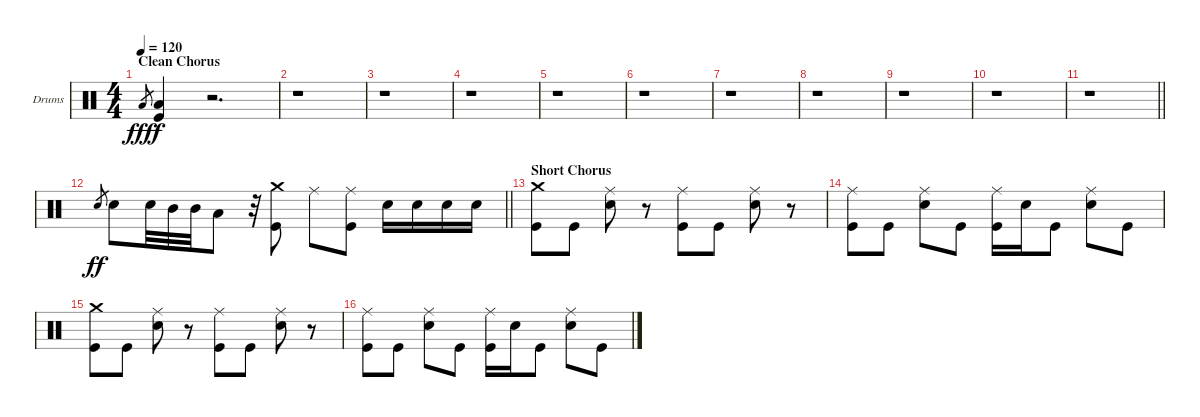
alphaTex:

\bracketExtendMode groupsimilarinstruments
\firstSystemTrackNameOrientation horizontal
\otherSystemsTrackNameOrientation horizontal
\track ("Drums" "Drums") {instrument percussion}
\staff {score}
\articulation defaults
\ts (4 4)
\section ("" "Clean Chorus")
\tempo 120
\clef neutral
\ks c "Low Tom (hit)".8{gr dy fff}
("Kick (hit)" "Low Tom (hit)").4{dy f} r.2{d} |
r.1 |
r.1 |
r.1 |
r.1 |
r.1 |
r.1 |
r.1 |
r.1 |
r.1 |
\barLineRight lightlight
r.1 |
\barLineRight lightlight "Snare (hit) 2".8{gr dy ff} "Snare (hit) 2".8 "Snare (hit) 2".32 "Mid Tom (hit)".32 "Mid Tom (hit)".32 "Low Tom (hit)".8
r.32 ("Kick (hit)" "Crash medium (hit)").8 "Ride (middle)".8 ("Ride (middle)" "Kick (hit)").8 "Snare (hit) 2".16 "Snare (hit) 2".16 "Snare (hit) 2".16 "Snare (hit) 2".16 |
\section ("" "Short Chorus")
("Kick (hit)" "Crash medium (hit)").8 "Kick (hit)".8 ("Snare (hit) 2" "Ride (middle)").8 r.8 ("Kick (hit)" "Ride (middle)").8 "Kick (hit)".8 ("Snare (hit) 2" "Ride (middle)").8 r.8 |
("Kick (hit)" "Ride (middle)").8 "Kick (hit)".8 ("Snare (hit) 2" "Ride (middle)").8 "Kick (hit)".8 ("Kick (hit)" "Ride (middle)").16 "Snare (hit) 2".16 "Kick (hit)".8 ("Snare (hit) 2" "Ride (middle)").8 "Kick (hit)".8 |
("Kick (hit)" "Crash medium (hit)").8 "Kick (hit)".8 ("Snare (hit) 2" "Ride (middle)").8 r.8 ("Kick (hit)" "Ride (middle)").8 "Kick (hit)".8 ("Snare (hit) 2" "Ride (middle)").8 r.8 |
("Kick (hit)" "Ride (middle)").8 "Kick (hit)".8 ("Snare (hit) 2" "Ride (middle)").8 "Kick (hit)".8 ("Kick (hit)" "Ride (middle)").16 "Snare (hit) 2".16 "Kick (hit)".8 ("Snare (hit) 2" "Ride (middle)").8 "Kick (hit)".8
